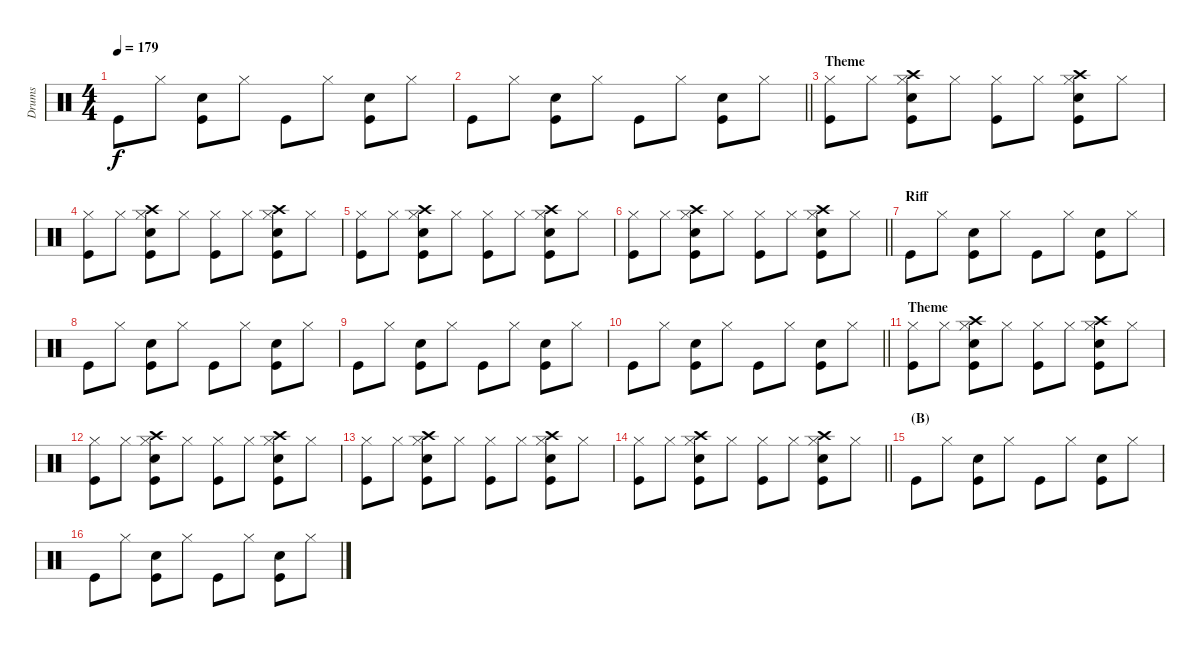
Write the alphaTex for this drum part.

\track ("Drums" "Drums") {instrument percussion}
\staff {score}
\articulation defaults
\ts (4 4)
\tempo 179
\clef neutral
\ks c "Kick (hit)".8{dy f} "Hi-Hat (closed)".8
("Snare (hit) 2" "Kick (hit)").8 "Hi-Hat (closed)".8 "Kick (hit)".8 "Hi-Hat (closed)".8 ("Snare (hit) 2" "Kick (hit)").8 "Hi-Hat (closed)".8 |
\barLineRight lightlight "Kick (hit)".8 "Hi-Hat (closed)".8
("Snare (hit) 2" "Kick (hit)").8 "Hi-Hat (closed)".8 "Kick (hit)".8 "Hi-Hat (closed)".8 ("Snare (hit) 2" "Kick (hit)").8 "Hi-Hat (closed)".8 |
\section ("" "Theme")
("Hi-Hat (closed)" "Kick (hit)").8 "Hi-Hat (closed)".8 ("Crash high (hit)" "Hi-Hat (closed)" "Snare (hit) 2" "Kick (hit)").8 "Hi-Hat (closed)".8 ("Hi-Hat (closed)" "Kick (hit)").8 "Hi-Hat (closed)".8 ("Crash high (hit)" "Hi-Hat (closed)" "Snare (hit) 2" "Kick (hit)").8 "Hi-Hat (closed)".8 |
("Hi-Hat (closed)" "Kick (hit)").8 "Hi-Hat (closed)".8 ("Crash high (hit)" "Hi-Hat (closed)" "Snare (hit) 2" "Kick (hit)").8 "Hi-Hat (closed)".8 ("Hi-Hat (closed)" "Kick (hit)").8 "Hi-Hat (closed)".8 ("Crash high (hit)" "Hi-Hat (closed)" "Snare (hit) 2" "Kick (hit)").8 "Hi-Hat (closed)".8 |
("Hi-Hat (closed)" "Kick (hit)").8 "Hi-Hat (closed)".8 ("Crash high (hit)" "Hi-Hat (closed)" "Snare (hit) 2" "Kick (hit)").8 "Hi-Hat (closed)".8 ("Hi-Hat (closed)" "Kick (hit)").8 "Hi-Hat (closed)".8 ("Crash high (hit)" "Hi-Hat (closed)" "Snare (hit) 2" "Kick (hit)").8 "Hi-Hat (closed)".8 |
\barLineRight lightlight
("Hi-Hat (closed)" "Kick (hit)").8 "Hi-Hat (closed)".8 ("Crash high (hit)" "Hi-Hat (closed)" "Snare (hit) 2" "Kick (hit)").8 "Hi-Hat (closed)".8 ("Hi-Hat (closed)" "Kick (hit)").8 "Hi-Hat (closed)".8 ("Crash high (hit)" "Hi-Hat (closed)" "Snare (hit) 2" "Kick (hit)").8 "Hi-Hat (closed)".8 |
\section ("" "Riff")
"Kick (hit)".8 "Hi-Hat (closed)".8 ("Snare (hit) 2" "Kick (hit)").8 "Hi-Hat (closed)".8 "Kick (hit)".8 "Hi-Hat (closed)".8 ("Snare (hit) 2" "Kick (hit)").8 "Hi-Hat (closed)".8 |
"Kick (hit)".8 "Hi-Hat (closed)".8 ("Snare (hit) 2" "Kick (hit)").8 "Hi-Hat (closed)".8 "Kick (hit)".8 "Hi-Hat (closed)".8 ("Snare (hit) 2" "Kick (hit)").8 "Hi-Hat (closed)".8 |
"Kick (hit)".8 "Hi-Hat (closed)".8 ("Snare (hit) 2" "Kick (hit)").8 "Hi-Hat (closed)".8 "Kick (hit)".8 "Hi-Hat (closed)".8 ("Snare (hit) 2" "Kick (hit)").8 "Hi-Hat (closed)".8 |
\barLineRight lightlight "Kick (hit)".8 "Hi-Hat (closed)".8
("Snare (hit) 2" "Kick (hit)").8 "Hi-Hat (closed)".8 "Kick (hit)".8 "Hi-Hat (closed)".8 ("Snare (hit) 2" "Kick (hit)").8 "Hi-Hat (closed)".8 |
\section ("" "Theme")
("Hi-Hat (closed)" "Kick (hit)").8 "Hi-Hat (closed)".8 ("Crash high (hit)" "Hi-Hat (closed)" "Snare (hit) 2" "Kick (hit)").8 "Hi-Hat (closed)".8 ("Hi-Hat (closed)" "Kick (hit)").8 "Hi-Hat (closed)".8 ("Crash high (hit)" "Hi-Hat (closed)" "Snare (hit) 2" "Kick (hit)").8 "Hi-Hat (closed)".8 |
("Hi-Hat (closed)" "Kick (hit)").8 "Hi-Hat (closed)".8 ("Crash high (hit)" "Hi-Hat (closed)" "Snare (hit) 2" "Kick (hit)").8 "Hi-Hat (closed)".8 ("Hi-Hat (closed)" "Kick (hit)").8 "Hi-Hat (closed)".8 ("Crash high (hit)" "Hi-Hat (closed)" "Snare (hit) 2" "Kick (hit)").8 "Hi-Hat (closed)".8 |
("Hi-Hat (closed)" "Kick (hit)").8 "Hi-Hat (closed)".8 ("Crash high (hit)" "Hi-Hat (closed)" "Snare (hit) 2" "Kick (hit)").8 "Hi-Hat (closed)".8 ("Hi-Hat (closed)" "Kick (hit)").8 "Hi-Hat (closed)".8 ("Crash high (hit)" "Hi-Hat (closed)" "Snare (hit) 2" "Kick (hit)").8 "Hi-Hat (closed)".8 |
\barLineRight lightlight
("Hi-Hat (closed)" "Kick (hit)").8 "Hi-Hat (closed)".8 ("Crash high (hit)" "Hi-Hat (closed)" "Snare (hit) 2" "Kick (hit)").8 "Hi-Hat (closed)".8 ("Hi-Hat (closed)" "Kick (hit)").8 "Hi-Hat (closed)".8 ("Crash high (hit)" "Hi-Hat (closed)" "Snare (hit) 2" "Kick (hit)").8 "Hi-Hat (closed)".8 |
\section ("" "(B)")
"Kick (hit)".8 "Hi-Hat (closed)".8 ("Snare (hit) 2" "Kick (hit)").8 "Hi-Hat (closed)".8 "Kick (hit)".8 "Hi-Hat (closed)".8 ("Snare (hit) 2" "Kick (hit)").8 "Hi-Hat (closed)".8 |
"Kick (hit)".8 "Hi-Hat (closed)".8 ("Snare (hit) 2" "Kick (hit)").8 "Hi-Hat (closed)".8 "Kick (hit)".8 "Hi-Hat (closed)".8 ("Snare (hit) 2" "Kick (hit)").8 "Hi-Hat (closed)".8
